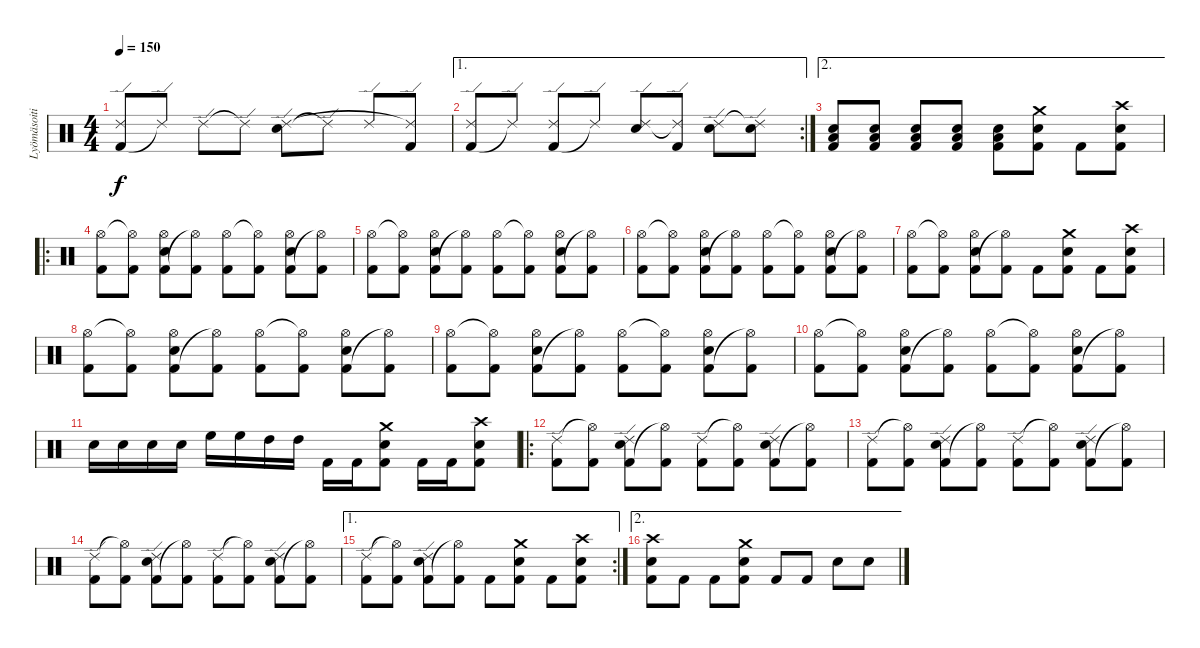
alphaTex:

\track ("Lyömäsoitin" "Lyömäsoiti") {instrument percussion}
\staff {score}
\articulation defaults
\ts (4 4)
\tempo 150
\clef neutral
\ks c
("Kick (hit) 2" "Ride (edge) 2").8{dy f} "Ride (edge) 2"{t}.8 "Ride (edge) 2".8 "Ride (edge) 2"{t}.8 ("Electric Snare (hit)" "Ride (edge) 2").8 "Ride (edge) 2"{t}.8 "Ride (edge) 2".8 ("Kick (hit) 2" "Ride (edge) 2"{t}).8 |
\ae 1
\rc 2
("Kick (hit) 2" "Ride (edge) 2").8 "Ride (edge) 2"{t}.8 ("Kick (hit) 2" "Ride (edge) 2").8 "Ride (edge) 2"{t}.8 ("Electric Snare (hit)" "Ride (edge) 2").8 ("Kick (hit) 2" "Ride (edge) 2"{t}).8 ("Electric Snare (hit)" "Ride (edge) 2").8 ("Electric Snare (hit)" "Ride (edge) 2"{t}).8 |
\ae 2
("Electric Snare (hit)" "Kick (hit) 2" "Low Tom (hit)").8 ("Electric Snare (hit)" "Kick (hit) 2" "Low Tom (hit)").8 ("Electric Snare (hit)" "Kick (hit) 2" "Low Tom (hit)").8 ("Electric Snare (hit)" "Kick (hit) 2" "Low Tom (hit)").8 ("Electric Snare (hit)" "Kick (hit) 2" "Low Tom (hit)").8 ("Electric Snare (hit)" "Kick (hit) 2" "Crash medium (hit)").8 "Kick (hit) 2".8 ("Electric Snare (hit)" "Kick (hit) 2" "Crash high (hit)").8 |
\ro
("Kick (hit) 2" "Hi-Hat (open)").8 ("Kick (hit) 2" "Hi-Hat (open)"{t}).8 ("Electric Snare (hit)" "Kick (hit) 2" "Hi-Hat (open)").8 ("Kick (hit) 2" "Hi-Hat (open)"{t}).8 ("Kick (hit) 2" "Hi-Hat (open)").8 ("Kick (hit) 2" "Hi-Hat (open)"{t}).8 ("Electric Snare (hit)" "Kick (hit) 2" "Hi-Hat (open)").8 ("Kick (hit) 2" "Hi-Hat (open)"{t}).8 |
("Kick (hit) 2" "Hi-Hat (open)").8 ("Kick (hit) 2" "Hi-Hat (open)"{t}).8 ("Electric Snare (hit)" "Kick (hit) 2" "Hi-Hat (open)").8 ("Kick (hit) 2" "Hi-Hat (open)"{t}).8 ("Kick (hit) 2" "Hi-Hat (open)").8 ("Kick (hit) 2" "Hi-Hat (open)"{t}).8 ("Electric Snare (hit)" "Kick (hit) 2" "Hi-Hat (open)").8 ("Kick (hit) 2" "Hi-Hat (open)"{t}).8 |
("Kick (hit) 2" "Hi-Hat (open)").8 ("Kick (hit) 2" "Hi-Hat (open)"{t}).8 ("Electric Snare (hit)" "Kick (hit) 2" "Hi-Hat (open)").8 ("Kick (hit) 2" "Hi-Hat (open)"{t}).8 ("Kick (hit) 2" "Hi-Hat (open)").8 ("Kick (hit) 2" "Hi-Hat (open)"{t}).8 ("Electric Snare (hit)" "Kick (hit) 2" "Hi-Hat (open)").8 ("Kick (hit) 2" "Hi-Hat (open)"{t}).8 |
("Kick (hit) 2" "Hi-Hat (open)").8 ("Kick (hit) 2" "Hi-Hat (open)"{t}).8 ("Electric Snare (hit)" "Kick (hit) 2" "Hi-Hat (open)").8 ("Kick (hit) 2" "Hi-Hat (open)"{t}).8 "Kick (hit) 2".8 ("Electric Snare (hit)" "Kick (hit) 2" "Crash medium (hit)").8 "Kick (hit) 2".8 ("Electric Snare (hit)" "Kick (hit) 2" "Crash high (hit)").8 |
("Kick (hit) 2" "Hi-Hat (open)").8 ("Kick (hit) 2" "Hi-Hat (open)"{t}).8 ("Electric Snare (hit)" "Kick (hit) 2" "Hi-Hat (open)").8 ("Kick (hit) 2" "Hi-Hat (open)"{t}).8 ("Kick (hit) 2" "Hi-Hat (open)").8 ("Kick (hit) 2" "Hi-Hat (open)"{t}).8 ("Electric Snare (hit)" "Kick (hit) 2" "Hi-Hat (open)").8 ("Kick (hit) 2" "Hi-Hat (open)"{t}).8 |
("Kick (hit) 2" "Hi-Hat (open)").8 ("Kick (hit) 2" "Hi-Hat (open)"{t}).8 ("Electric Snare (hit)" "Kick (hit) 2" "Hi-Hat (open)").8 ("Kick (hit) 2" "Hi-Hat (open)"{t}).8 ("Kick (hit) 2" "Hi-Hat (open)").8 ("Kick (hit) 2" "Hi-Hat (open)"{t}).8 ("Electric Snare (hit)" "Kick (hit) 2" "Hi-Hat (open)").8 ("Kick (hit) 2" "Hi-Hat (open)"{t}).8 |
("Kick (hit) 2" "Hi-Hat (open)").8 ("Kick (hit) 2" "Hi-Hat (open)"{t}).8 ("Electric Snare (hit)" "Kick (hit) 2" "Hi-Hat (open)").8 ("Kick (hit) 2" "Hi-Hat (open)"{t}).8 ("Kick (hit) 2" "Hi-Hat (open)").8 ("Kick (hit) 2" "Hi-Hat (open)"{t}).8 ("Electric Snare (hit)" "Kick (hit) 2" "Hi-Hat (open)").8 ("Kick (hit) 2" "Hi-Hat (open)"{t}).8 |
"Electric Snare (hit)".16 "Electric Snare (hit)".16 "Electric Snare (hit)".16 "Electric Snare (hit)".16 "High Floor Tom (hit)".16 "High Floor Tom (hit)".16 "High Tom (hit)".16 "High Tom (hit)".16 "Kick (hit) 2".16 "Kick (hit) 2".16 ("Electric Snare (hit)" "Kick (hit) 2" "Crash medium (hit)").8 "Kick (hit) 2".16 "Kick (hit) 2".16 ("Electric Snare (hit)" "Kick (hit) 2" "Crash high (hit)").8 |
\ro
("Kick (hit) 2" "Ride (edge) 2").8 ("Kick (hit) 2" "Hi-Hat (open)"{t}).8 ("Electric Snare (hit)" "Kick (hit) 2" "Ride (edge) 2").8 ("Kick (hit) 2" "Hi-Hat (open)"{t}).8 ("Kick (hit) 2" "Ride (edge) 2").8 ("Kick (hit) 2" "Hi-Hat (open)"{t}).8 ("Electric Snare (hit)" "Kick (hit) 2" "Ride (edge) 2").8 ("Kick (hit) 2" "Hi-Hat (open)"{t}).8 |
("Kick (hit) 2" "Ride (edge) 2").8 ("Kick (hit) 2" "Hi-Hat (open)"{t}).8 ("Electric Snare (hit)" "Kick (hit) 2" "Ride (edge) 2").8 ("Kick (hit) 2" "Hi-Hat (open)"{t}).8 ("Kick (hit) 2" "Ride (edge) 2").8 ("Kick (hit) 2" "Hi-Hat (open)"{t}).8 ("Electric Snare (hit)" "Kick (hit) 2" "Ride (edge) 2").8 ("Kick (hit) 2" "Hi-Hat (open)"{t}).8 |
("Kick (hit) 2" "Ride (edge) 2").8 ("Kick (hit) 2" "Hi-Hat (open)"{t}).8 ("Electric Snare (hit)" "Kick (hit) 2" "Ride (edge) 2").8 ("Kick (hit) 2" "Hi-Hat (open)"{t}).8 ("Kick (hit) 2" "Ride (edge) 2").8 ("Kick (hit) 2" "Hi-Hat (open)"{t}).8 ("Electric Snare (hit)" "Kick (hit) 2" "Ride (edge) 2").8 ("Kick (hit) 2" "Hi-Hat (open)"{t}).8 |
\ae 1
\rc 2
("Kick (hit) 2" "Ride (edge) 2").8 ("Kick (hit) 2" "Hi-Hat (open)"{t}).8 ("Electric Snare (hit)" "Kick (hit) 2" "Ride (edge) 2").8 ("Kick (hit) 2" "Hi-Hat (open)"{t}).8 "Kick (hit) 2".8 ("Electric Snare (hit)" "Kick (hit) 2" "Crash medium (hit)").8 "Kick (hit) 2".8 ("Electric Snare (hit)" "Kick (hit) 2" "Crash high (hit)").8 |
\ae 2
("Electric Snare (hit)" "Kick (hit) 2" "Crash high (hit)").8 "Kick (hit) 2".8 "Kick (hit) 2".8 ("Electric Snare (hit)" "Kick (hit) 2" "Crash medium (hit)").8 "Kick (hit) 2".8 "Kick (hit) 2".8 "Electric Snare (hit)".8 "Electric Snare (hit)".8
